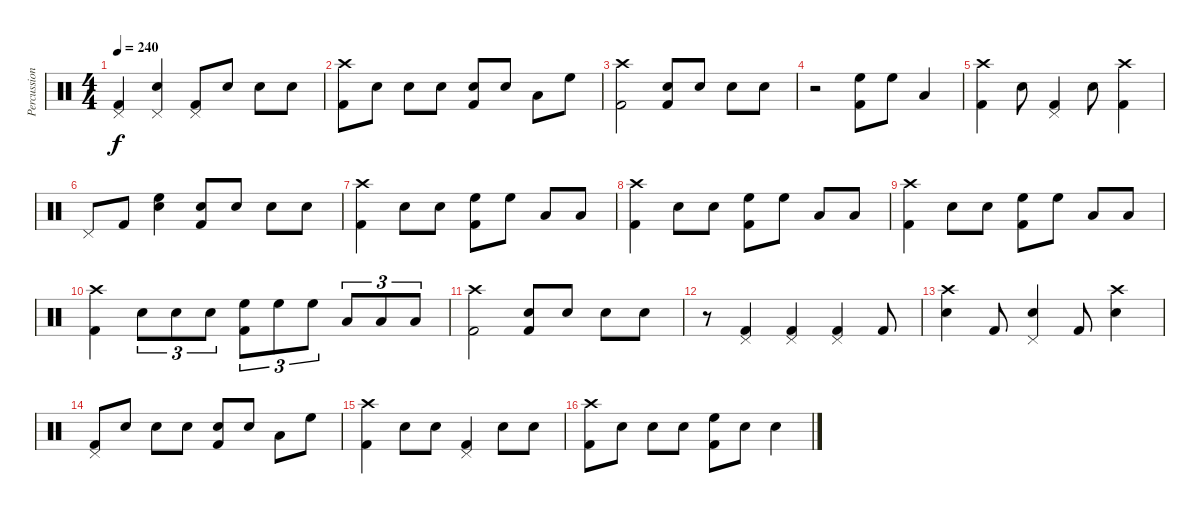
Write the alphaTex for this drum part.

\track ("Percussion" "Percussion") {instrument percussion}
\staff {score}
\articulation defaults
\ts (4 4)
\tempo 240
\clef neutral
\ks c
("Pedal Hi-Hat (hit)" "Kick (hit) 2").4{dy f} ("Pedal Hi-Hat (hit)" "Electric Snare (hit)").4 ("Pedal Hi-Hat (hit)" "Kick (hit) 2").8 "Electric Snare (hit)".8 "Electric Snare (hit)".8 "Electric Snare (hit)".8 |
("Crash high (hit)" "Kick (hit) 2").8 "Electric Snare (hit)".8 "Electric Snare (hit)".8 "Electric Snare (hit)".8 ("Electric Snare (hit)" "Kick (hit) 2").8 "Electric Snare (hit)".8 "Low Tom (hit)".8 "High Floor Tom (hit)".8 |
("Crash high (hit)" "Kick (hit) 2").2 ("Electric Snare (hit)" "Kick (hit) 2").8 "Electric Snare (hit)".8 "Electric Snare (hit)".8 "Electric Snare (hit)".8 |
r.2 ("High Floor Tom (hit)" "Kick (hit) 2").8 "High Floor Tom (hit)".8 "Low Tom (hit)".4 |
("Crash high (hit)" "Kick (hit) 2").4 "Electric Snare (hit)".8 ("Pedal Hi-Hat (hit)" "Kick (hit) 2").4 "Electric Snare (hit)".8 ("Crash high (hit)" "Kick (hit) 2").4 |
"Pedal Hi-Hat (hit)".8 "Kick (hit) 2".8 ("High Floor Tom (hit)" "Electric Snare (hit)").4 ("Electric Snare (hit)" "Kick (hit) 2").8 "Electric Snare (hit)".8 "Electric Snare (hit)".8 "Electric Snare (hit)".8 |
("Crash high (hit)" "Kick (hit) 2").4 "Electric Snare (hit)".8 "Electric Snare (hit)".8 ("High Floor Tom (hit)" "Kick (hit) 2").8 "High Floor Tom (hit)".8 "Low Tom (hit)".8 "Low Tom (hit)".8 |
("Crash high (hit)" "Kick (hit) 2").4 "Electric Snare (hit)".8 "Electric Snare (hit)".8 ("High Floor Tom (hit)" "Kick (hit) 2").8 "High Floor Tom (hit)".8 "Low Tom (hit)".8 "Low Tom (hit)".8 |
("Crash high (hit)" "Kick (hit) 2").4 "Electric Snare (hit)".8 "Electric Snare (hit)".8 ("High Floor Tom (hit)" "Kick (hit) 2").8 "High Floor Tom (hit)".8 "Low Tom (hit)".8 "Low Tom (hit)".8 |
("Crash high (hit)" "Kick (hit) 2").4 "Electric Snare (hit)".8{tu (3 2)} "Electric Snare (hit)".8{tu (3 2)} "Electric Snare (hit)".8{tu (3 2)} ("High Floor Tom (hit)" "Kick (hit) 2").8{tu (3 2)} "High Floor Tom (hit)".8{tu (3 2)} "High Floor Tom (hit)".8{tu (3 2)} "Low Tom (hit)".8{tu (3 2)} "Low Tom (hit)".8{tu (3 2)} "Low Tom (hit)".8{tu (3 2)} |
("Crash high (hit)" "Kick (hit) 2").2 ("Electric Snare (hit)" "Kick (hit) 2").8 "Electric Snare (hit)".8 "Electric Snare (hit)".8 "Electric Snare (hit)".8 |
r.8 ("Pedal Hi-Hat (hit)" "Kick (hit) 2").4 ("Pedal Hi-Hat (hit)" "Kick (hit) 2").4 ("Pedal Hi-Hat (hit)" "Kick (hit) 2").4 "Kick (hit) 2".8 |
("Crash high (hit)" "Electric Snare (hit)").4 "Kick (hit) 2".8 ("Pedal Hi-Hat (hit)" "Electric Snare (hit)").4 "Kick (hit) 2".8 ("Crash high (hit)" "Electric Snare (hit)").4 |
("Pedal Hi-Hat (hit)" "Kick (hit) 2").8 "Electric Snare (hit)".8 "Electric Snare (hit)".8 "Electric Snare (hit)".8 ("Electric Snare (hit)" "Kick (hit) 2").8 "Electric Snare (hit)".8 "Low Tom (hit)".8 "High Floor Tom (hit)".8 |
("Crash high (hit)" "Kick (hit) 2").4 "Electric Snare (hit)".8 "Electric Snare (hit)".8 ("Pedal Hi-Hat (hit)" "Kick (hit) 2").4 "Electric Snare (hit)".8 "Electric Snare (hit)".8 |
("Crash high (hit)" "Kick (hit) 2").8 "Electric Snare (hit)".8 "Electric Snare (hit)".8 "Electric Snare (hit)".8 ("High Floor Tom (hit)" "Kick (hit) 2").8 "Electric Snare (hit)".8 "Electric Snare (hit)".4
